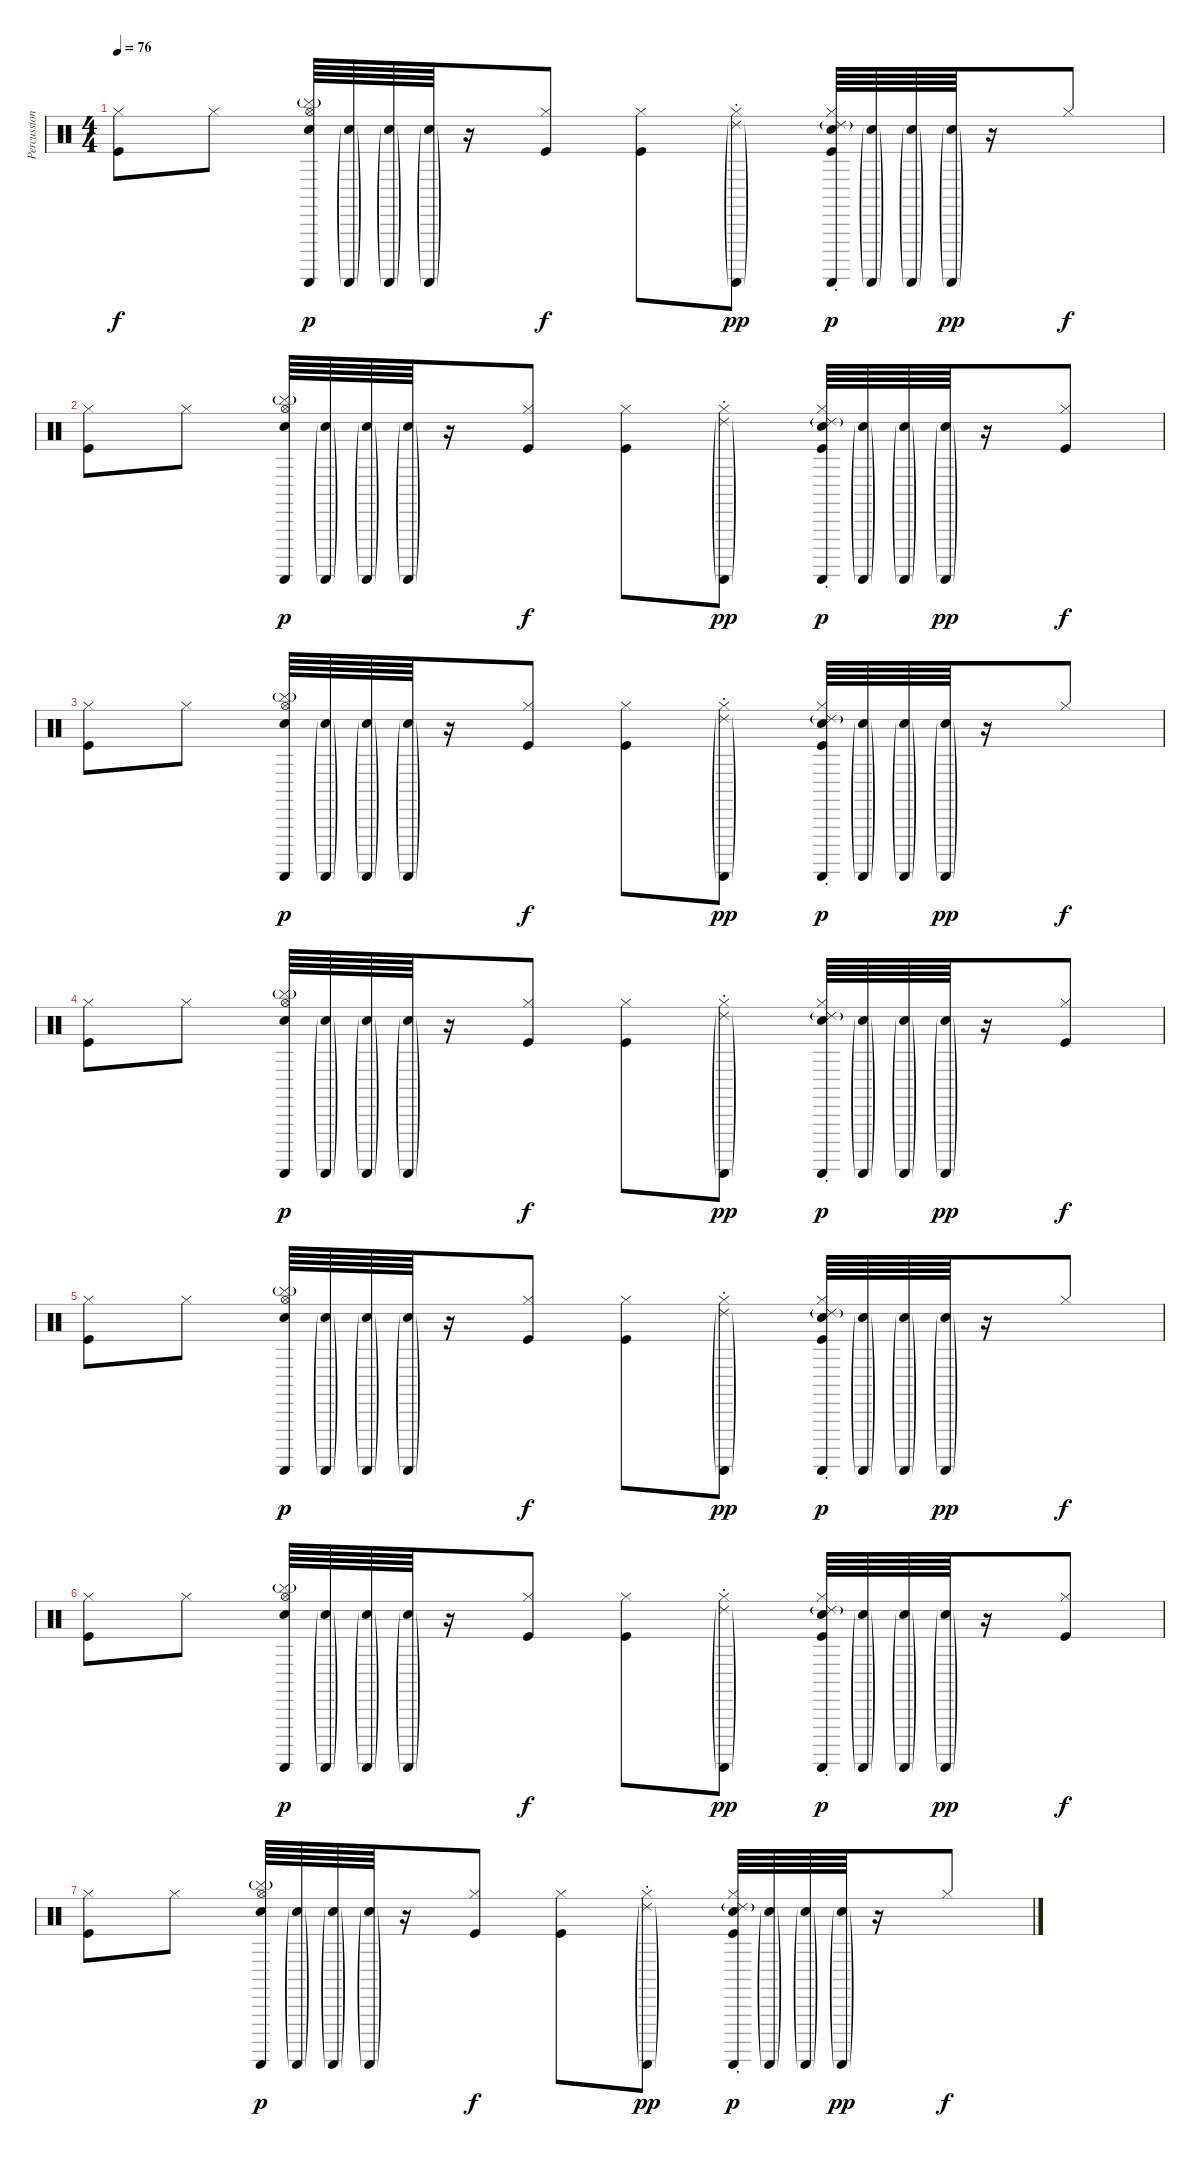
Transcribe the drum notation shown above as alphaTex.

\track ("Percussion" "Percussion") {instrument percussion}
\staff {score}
\articulation defaults
\ts (4 4)
\tempo 76
\clef neutral
\ks c
("Hi-Hat (closed)" "Kick (hit)").8{dy f} "Hi-Hat (closed)".8 ("Hi-Hat (open)" "Cymbal (hit)"{g} "Snare (hit) 2" "Guiro (scrap-return)").64{dy p} ("Snare (hit) 2"{g} "Guiro (scrap-return)"{g}).64 ("Snare (hit) 2"{g} "Guiro (scrap-return)"{g}).64 ("Snare (hit) 2"{g} "Guiro (scrap-return)"{g}).64 r.16 ("Hi-Hat (closed)" "Kick (hit)").8{dy f} ("Hi-Hat (closed)" "Kick (hit)").8 ("Hi-Hat (closed)" "Ride (choke) 2"{g} "Guiro (scrap-return)"{g}).8{dy pp} ("Hi-Hat (closed)" "Ride (choke) 2"{g} "Snare (hit) 2" "Guiro (scrap-return)" "Kick (hit)").64{dy p} ("Snare (hit) 2"{g} "Guiro (scrap-return)"{g}).64 ("Snare (hit) 2"{g} "Guiro (scrap-return)"{g}).64 ("Snare (hit) 2"{g} "Guiro (scrap-return)"{g}).64{dy pp} r.16 "Hi-Hat (closed)".8{dy f} |
("Hi-Hat (closed)" "Kick (hit)").8 "Hi-Hat (closed)".8 ("Hi-Hat (open)" "Cymbal (hit)"{g} "Snare (hit) 2" "Guiro (scrap-return)").64{dy p} ("Snare (hit) 2"{g} "Guiro (scrap-return)"{g}).64 ("Snare (hit) 2"{g} "Guiro (scrap-return)"{g}).64 ("Snare (hit) 2"{g} "Guiro (scrap-return)"{g}).64 r.16 ("Hi-Hat (closed)" "Kick (hit)").8{dy f} ("Hi-Hat (closed)" "Kick (hit)").8 ("Hi-Hat (closed)" "Ride (choke) 2"{g} "Guiro (scrap-return)"{g}).8{dy pp} ("Hi-Hat (closed)" "Ride (choke) 2"{g} "Snare (hit) 2" "Guiro (scrap-return)" "Kick (hit)").64{dy p} ("Snare (hit) 2"{g} "Guiro (scrap-return)"{g}).64 ("Snare (hit) 2"{g} "Guiro (scrap-return)"{g}).64 ("Snare (hit) 2"{g} "Guiro (scrap-return)"{g}).64{dy pp} r.16 ("Hi-Hat (closed)" "Kick (hit)").8{dy f} |
("Hi-Hat (closed)" "Kick (hit)").8{volume 9} "Hi-Hat (closed)".8 ("Hi-Hat (open)" "Cymbal (hit)"{g} "Snare (hit) 2" "Guiro (scrap-return)").64{dy p} ("Snare (hit) 2"{g} "Guiro (scrap-return)"{g}).64 ("Snare (hit) 2"{g} "Guiro (scrap-return)"{g}).64 ("Snare (hit) 2"{g} "Guiro (scrap-return)"{g}).64 r.16 ("Hi-Hat (closed)" "Kick (hit)").8{dy f} ("Hi-Hat (closed)" "Kick (hit)").8 ("Hi-Hat (closed)" "Ride (choke) 2"{g} "Guiro (scrap-return)"{g}).8{dy pp} ("Hi-Hat (closed)" "Ride (choke) 2"{g} "Snare (hit) 2" "Guiro (scrap-return)" "Kick (hit)").64{dy p} ("Snare (hit) 2"{g} "Guiro (scrap-return)"{g}).64 ("Snare (hit) 2"{g} "Guiro (scrap-return)"{g}).64 ("Snare (hit) 2"{g} "Guiro (scrap-return)"{g}).64{dy pp} r.16 "Hi-Hat (closed)".8{dy f} |
("Hi-Hat (closed)" "Kick (hit)").8 "Hi-Hat (closed)".8 ("Hi-Hat (open)" "Cymbal (hit)"{g} "Snare (hit) 2" "Guiro (scrap-return)").64{dy p} ("Snare (hit) 2"{g} "Guiro (scrap-return)"{g}).64 ("Snare (hit) 2"{g} "Guiro (scrap-return)"{g}).64 ("Snare (hit) 2"{g} "Guiro (scrap-return)"{g}).64 r.16 ("Hi-Hat (closed)" "Kick (hit)").8{dy f} ("Hi-Hat (closed)" "Kick (hit)").8 ("Hi-Hat (closed)" "Ride (choke) 2"{g} "Guiro (scrap-return)"{g}).8{dy pp} ("Hi-Hat (closed)" "Ride (choke) 2"{g} "Snare (hit) 2" "Guiro (scrap-return)").64{dy p} ("Snare (hit) 2"{g} "Guiro (scrap-return)"{g}).64 ("Snare (hit) 2"{g} "Guiro (scrap-return)"{g}).64 ("Snare (hit) 2"{g} "Guiro (scrap-return)"{g}).64{dy pp} r.16 ("Hi-Hat (closed)" "Kick (hit)").8{dy f} |
("Hi-Hat (closed)" "Kick (hit)").8 "Hi-Hat (closed)".8 ("Hi-Hat (open)" "Cymbal (hit)"{g} "Snare (hit) 2" "Guiro (scrap-return)").64{dy p} ("Snare (hit) 2"{g} "Guiro (scrap-return)"{g}).64 ("Snare (hit) 2"{g} "Guiro (scrap-return)"{g}).64 ("Snare (hit) 2"{g} "Guiro (scrap-return)"{g}).64 r.16 ("Hi-Hat (closed)" "Kick (hit)").8{dy f} ("Hi-Hat (closed)" "Kick (hit)").8 ("Hi-Hat (closed)" "Ride (choke) 2"{g} "Guiro (scrap-return)"{g}).8{dy pp} ("Hi-Hat (closed)" "Ride (choke) 2"{g} "Snare (hit) 2" "Guiro (scrap-return)" "Kick (hit)").64{dy p} ("Snare (hit) 2"{g} "Guiro (scrap-return)"{g}).64 ("Snare (hit) 2"{g} "Guiro (scrap-return)"{g}).64 ("Snare (hit) 2"{g} "Guiro (scrap-return)"{g}).64{dy pp} r.16 "Hi-Hat (closed)".8{dy f} |
("Hi-Hat (closed)" "Kick (hit)").8 "Hi-Hat (closed)".8 ("Hi-Hat (open)" "Cymbal (hit)"{g} "Snare (hit) 2" "Guiro (scrap-return)").64{dy p} ("Snare (hit) 2"{g} "Guiro (scrap-return)"{g}).64 ("Snare (hit) 2"{g} "Guiro (scrap-return)"{g}).64 ("Snare (hit) 2"{g} "Guiro (scrap-return)"{g}).64 r.16 ("Hi-Hat (closed)" "Kick (hit)").8{dy f} ("Hi-Hat (closed)" "Kick (hit)").8 ("Hi-Hat (closed)" "Ride (choke) 2"{g} "Guiro (scrap-return)"{g}).8{dy pp} ("Hi-Hat (closed)" "Ride (choke) 2"{g} "Snare (hit) 2" "Guiro (scrap-return)" "Kick (hit)").64{dy p} ("Snare (hit) 2"{g} "Guiro (scrap-return)"{g}).64 ("Snare (hit) 2"{g} "Guiro (scrap-return)"{g}).64 ("Snare (hit) 2"{g} "Guiro (scrap-return)"{g}).64{dy pp} r.16 ("Hi-Hat (closed)" "Kick (hit)").8{dy f} |
("Hi-Hat (closed)" "Kick (hit)").8{volume 2} "Hi-Hat (closed)".8 ("Hi-Hat (open)" "Cymbal (hit)"{g} "Snare (hit) 2" "Guiro (scrap-return)").64{dy p} ("Snare (hit) 2"{g} "Guiro (scrap-return)"{g}).64 ("Snare (hit) 2"{g} "Guiro (scrap-return)"{g}).64 ("Snare (hit) 2"{g} "Guiro (scrap-return)"{g}).64 r.16 ("Hi-Hat (closed)" "Kick (hit)").8{dy f} ("Hi-Hat (closed)" "Kick (hit)").8 ("Hi-Hat (closed)" "Ride (choke) 2"{g} "Guiro (scrap-return)"{g}).8{dy pp} ("Hi-Hat (closed)" "Ride (choke) 2"{g} "Snare (hit) 2" "Guiro (scrap-return)" "Kick (hit)").64{dy p} ("Snare (hit) 2"{g} "Guiro (scrap-return)"{g}).64 ("Snare (hit) 2"{g} "Guiro (scrap-return)"{g}).64 ("Snare (hit) 2"{g} "Guiro (scrap-return)"{g}).64{dy pp} r.16 "Hi-Hat (closed)".8{dy f}
